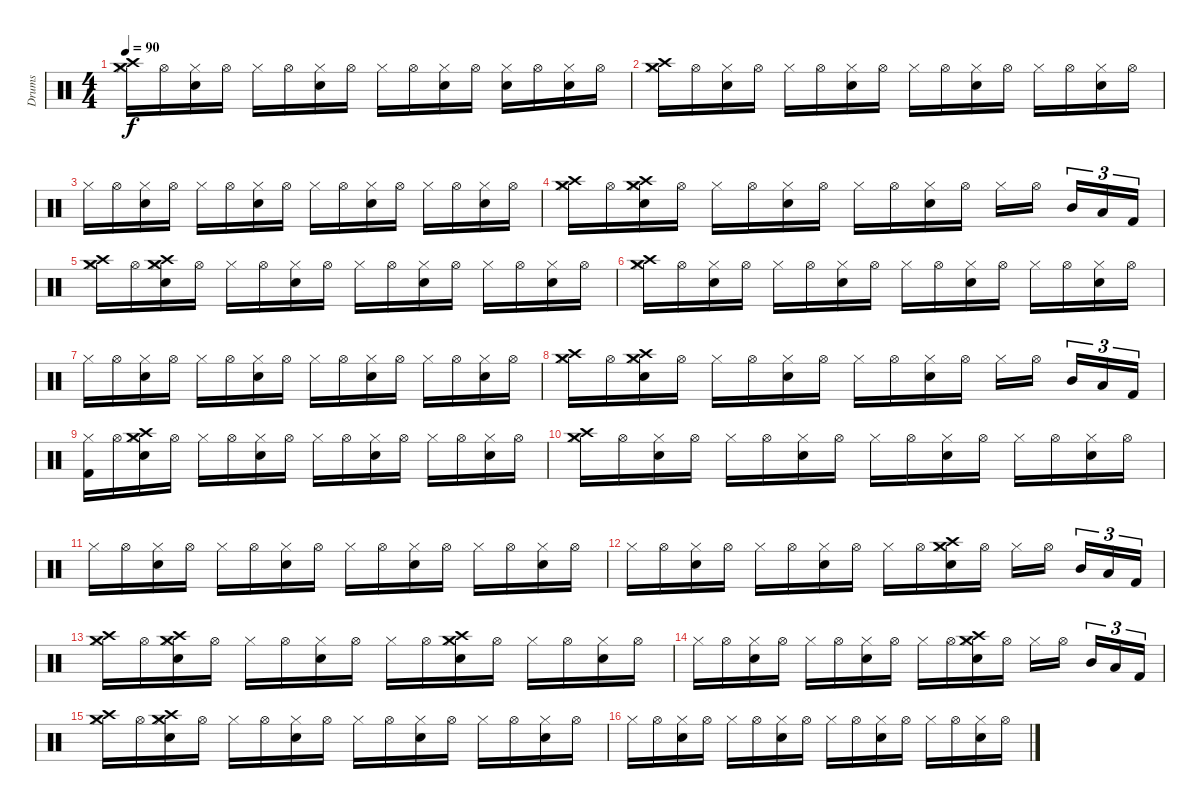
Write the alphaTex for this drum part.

\track ("Drums" "Drums") {instrument percussion}
\staff {score}
\articulation defaults
\ts (4 4)
\tempo 90
\clef neutral
\ks c
("Crash high (hit)" "Hi-Hat (closed)" "Crash medium (hit)").16{dy f} "Hi-Hat (open)".16 ("Snare (hit) 2" "Hi-Hat (closed)").16 "Hi-Hat (open)".16 "Hi-Hat (closed)".16 "Hi-Hat (open)".16 ("Snare (hit) 2" "Hi-Hat (closed)").16 "Hi-Hat (open)".16 "Hi-Hat (closed)".16 "Hi-Hat (open)".16 ("Snare (hit) 2" "Hi-Hat (closed)").16 "Hi-Hat (open)".16 ("Snare (hit) 2" "Hi-Hat (closed)").16 "Hi-Hat (open)".16 ("Snare (hit) 2" "Hi-Hat (closed)").16 "Hi-Hat (open)".16 |
("Crash high (hit)" "Hi-Hat (closed)" "Crash medium (hit)").16 "Hi-Hat (open)".16 ("Snare (hit) 2" "Hi-Hat (closed)").16 "Hi-Hat (open)".16 "Hi-Hat (closed)".16 "Hi-Hat (open)".16 ("Snare (hit) 2" "Hi-Hat (closed)").16 "Hi-Hat (open)".16 "Hi-Hat (closed)".16 "Hi-Hat (open)".16 ("Snare (hit) 2" "Hi-Hat (closed)").16 "Hi-Hat (open)".16 "Hi-Hat (closed)".16 "Hi-Hat (open)".16 ("Snare (hit) 2" "Hi-Hat (closed)").16 "Hi-Hat (open)".16 |
"Hi-Hat (closed)".16 "Hi-Hat (open)".16 ("Snare (hit) 2" "Hi-Hat (closed)").16 "Hi-Hat (open)".16 "Hi-Hat (closed)".16 "Hi-Hat (open)".16 ("Snare (hit) 2" "Hi-Hat (closed)").16 "Hi-Hat (open)".16 "Hi-Hat (closed)".16 "Hi-Hat (open)".16 ("Snare (hit) 2" "Hi-Hat (closed)").16 "Hi-Hat (open)".16 "Hi-Hat (closed)".16 "Hi-Hat (open)".16 ("Snare (hit) 2" "Hi-Hat (closed)").16 "Hi-Hat (open)".16 |
("Crash high (hit)" "Hi-Hat (closed)" "Crash medium (hit)").16 "Hi-Hat (open)".16 ("Snare (hit) 2" "Hi-Hat (closed)" "Crash high (hit)" "Crash medium (hit)").16 "Hi-Hat (open)".16 "Hi-Hat (closed)".16 "Hi-Hat (open)".16 ("Snare (hit) 2" "Hi-Hat (closed)").16 "Hi-Hat (open)".16 "Hi-Hat (closed)".16 "Hi-Hat (open)".16 ("Snare (hit) 2" "Hi-Hat (closed)").16 "Hi-Hat (open)".16 "Hi-Hat (closed)".16 "Hi-Hat (open)".16{beam splitsecondary} "Mid Tom (hit)".16{tu (3 2)} "Low Tom (hit)".16{tu (3 2)} "Kick (hit) 2".16{tu (3 2)} |
("Crash high (hit)" "Hi-Hat (closed)" "Crash medium (hit)").16 "Hi-Hat (open)".16 ("Snare (hit) 2" "Hi-Hat (closed)" "Crash high (hit)" "Crash medium (hit)").16 "Hi-Hat (open)".16 "Hi-Hat (closed)".16 "Hi-Hat (open)".16 ("Snare (hit) 2" "Hi-Hat (closed)").16 "Hi-Hat (open)".16 "Hi-Hat (closed)".16 "Hi-Hat (open)".16 ("Snare (hit) 2" "Hi-Hat (closed)").16 "Hi-Hat (open)".16 "Hi-Hat (closed)".16 "Hi-Hat (open)".16 ("Snare (hit) 2" "Hi-Hat (closed)").16 "Hi-Hat (open)".16 |
("Crash high (hit)" "Hi-Hat (closed)" "Crash medium (hit)").16 "Hi-Hat (open)".16 ("Snare (hit) 2" "Hi-Hat (closed)").16 "Hi-Hat (open)".16 "Hi-Hat (closed)".16 "Hi-Hat (open)".16 ("Snare (hit) 2" "Hi-Hat (closed)").16 "Hi-Hat (open)".16 "Hi-Hat (closed)".16 "Hi-Hat (open)".16 ("Snare (hit) 2" "Hi-Hat (closed)").16 "Hi-Hat (open)".16 "Hi-Hat (closed)".16 "Hi-Hat (open)".16 ("Snare (hit) 2" "Hi-Hat (closed)").16 "Hi-Hat (open)".16 |
"Hi-Hat (closed)".16 "Hi-Hat (open)".16 ("Snare (hit) 2" "Hi-Hat (closed)").16 "Hi-Hat (open)".16 "Hi-Hat (closed)".16 "Hi-Hat (open)".16 ("Snare (hit) 2" "Hi-Hat (closed)").16 "Hi-Hat (open)".16 "Hi-Hat (closed)".16 "Hi-Hat (open)".16 ("Snare (hit) 2" "Hi-Hat (closed)").16 "Hi-Hat (open)".16 "Hi-Hat (closed)".16 "Hi-Hat (open)".16 ("Snare (hit) 2" "Hi-Hat (closed)").16 "Hi-Hat (open)".16 |
("Crash high (hit)" "Hi-Hat (closed)" "Crash medium (hit)").16 "Hi-Hat (open)".16 ("Snare (hit) 2" "Hi-Hat (closed)" "Crash high (hit)" "Crash medium (hit)").16 "Hi-Hat (open)".16 "Hi-Hat (closed)".16 "Hi-Hat (open)".16 ("Snare (hit) 2" "Hi-Hat (closed)").16 "Hi-Hat (open)".16 "Hi-Hat (closed)".16 "Hi-Hat (open)".16 ("Snare (hit) 2" "Hi-Hat (closed)").16 "Hi-Hat (open)".16 "Hi-Hat (closed)".16 "Hi-Hat (open)".16{beam splitsecondary} "Mid Tom (hit)".16{tu (3 2)} "Low Tom (hit)".16{tu (3 2)} "Kick (hit) 2".16{tu (3 2)} |
("Hi-Hat (closed)" "Kick (hit) 2").16 "Hi-Hat (open)".16 ("Snare (hit) 2" "Hi-Hat (closed)" "Crash high (hit)" "Crash medium (hit)").16 "Hi-Hat (open)".16 "Hi-Hat (closed)".16 "Hi-Hat (open)".16 ("Snare (hit) 2" "Hi-Hat (closed)").16 "Hi-Hat (open)".16 "Hi-Hat (closed)".16 "Hi-Hat (open)".16 ("Snare (hit) 2" "Hi-Hat (closed)").16 "Hi-Hat (open)".16 "Hi-Hat (closed)".16 "Hi-Hat (open)".16 ("Snare (hit) 2" "Hi-Hat (closed)").16 "Hi-Hat (open)".16 |
("Crash high (hit)" "Hi-Hat (closed)" "Crash medium (hit)").16 "Hi-Hat (open)".16 ("Snare (hit) 2" "Hi-Hat (closed)").16 "Hi-Hat (open)".16 "Hi-Hat (closed)".16 "Hi-Hat (open)".16 ("Snare (hit) 2" "Hi-Hat (closed)").16 "Hi-Hat (open)".16 "Hi-Hat (closed)".16 "Hi-Hat (open)".16 ("Snare (hit) 2" "Hi-Hat (closed)").16 "Hi-Hat (open)".16 "Hi-Hat (closed)".16 "Hi-Hat (open)".16 ("Snare (hit) 2" "Hi-Hat (closed)").16 "Hi-Hat (open)".16 |
"Hi-Hat (closed)".16 "Hi-Hat (open)".16 ("Snare (hit) 2" "Hi-Hat (closed)").16 "Hi-Hat (open)".16 "Hi-Hat (closed)".16 "Hi-Hat (open)".16 ("Snare (hit) 2" "Hi-Hat (closed)").16 "Hi-Hat (open)".16 "Hi-Hat (closed)".16 "Hi-Hat (open)".16 ("Snare (hit) 2" "Hi-Hat (closed)").16 "Hi-Hat (open)".16 "Hi-Hat (closed)".16 "Hi-Hat (open)".16 ("Snare (hit) 2" "Hi-Hat (closed)").16 "Hi-Hat (open)".16 |
"Hi-Hat (closed)".16 "Hi-Hat (open)".16 ("Snare (hit) 2" "Hi-Hat (closed)").16 "Hi-Hat (open)".16 "Hi-Hat (closed)".16 "Hi-Hat (open)".16 ("Snare (hit) 2" "Hi-Hat (closed)").16 "Hi-Hat (open)".16 "Hi-Hat (closed)".16 "Hi-Hat (open)".16 ("Snare (hit) 2" "Hi-Hat (closed)" "Crash high (hit)" "Crash medium (hit)").16 "Hi-Hat (open)".16 "Hi-Hat (closed)".16 "Hi-Hat (open)".16{beam splitsecondary} "Mid Tom (hit)".16{tu (3 2)} "Low Tom (hit)".16{tu (3 2)} "Kick (hit) 2".16{tu (3 2)} |
("Crash high (hit)" "Hi-Hat (closed)" "Crash medium (hit)").16 "Hi-Hat (open)".16 ("Snare (hit) 2" "Hi-Hat (closed)" "Crash high (hit)" "Crash medium (hit)").16 "Hi-Hat (open)".16 "Hi-Hat (closed)".16 "Hi-Hat (open)".16 ("Snare (hit) 2" "Hi-Hat (closed)").16 "Hi-Hat (open)".16 "Hi-Hat (closed)".16 "Hi-Hat (open)".16 ("Snare (hit) 2" "Hi-Hat (closed)" "Crash high (hit)" "Crash medium (hit)").16 "Hi-Hat (open)".16 "Hi-Hat (closed)".16 "Hi-Hat (open)".16 ("Snare (hit) 2" "Hi-Hat (closed)").16 "Hi-Hat (open)".16 |
"Hi-Hat (closed)".16 "Hi-Hat (open)".16 ("Snare (hit) 2" "Hi-Hat (closed)").16 "Hi-Hat (open)".16 "Hi-Hat (closed)".16 "Hi-Hat (open)".16 ("Snare (hit) 2" "Hi-Hat (closed)").16 "Hi-Hat (open)".16 "Hi-Hat (closed)".16 "Hi-Hat (open)".16 ("Snare (hit) 2" "Hi-Hat (closed)" "Crash high (hit)" "Crash medium (hit)").16 "Hi-Hat (open)".16 "Hi-Hat (closed)".16 "Hi-Hat (open)".16{beam splitsecondary} "Mid Tom (hit)".16{tu (3 2)} "Low Tom (hit)".16{tu (3 2)} "Kick (hit) 2".16{tu (3 2)} |
("Crash high (hit)" "Hi-Hat (closed)" "Crash medium (hit)").16 "Hi-Hat (open)".16 ("Snare (hit) 2" "Hi-Hat (closed)" "Crash high (hit)" "Crash medium (hit)").16 "Hi-Hat (open)".16 "Hi-Hat (closed)".16 "Hi-Hat (open)".16 ("Snare (hit) 2" "Hi-Hat (closed)").16 "Hi-Hat (open)".16 "Hi-Hat (closed)".16 "Hi-Hat (open)".16 ("Snare (hit) 2" "Hi-Hat (closed)").16 "Hi-Hat (open)".16 "Hi-Hat (closed)".16 "Hi-Hat (open)".16 ("Snare (hit) 2" "Hi-Hat (closed)").16 "Hi-Hat (open)".16 |
"Hi-Hat (closed)".16 "Hi-Hat (open)".16 ("Snare (hit) 2" "Hi-Hat (closed)").16 "Hi-Hat (open)".16 "Hi-Hat (closed)".16 "Hi-Hat (open)".16 ("Snare (hit) 2" "Hi-Hat (closed)").16 "Hi-Hat (open)".16 "Hi-Hat (closed)".16 "Hi-Hat (open)".16 ("Snare (hit) 2" "Hi-Hat (closed)").16 "Hi-Hat (open)".16 "Hi-Hat (closed)".16 "Hi-Hat (open)".16 ("Snare (hit) 2" "Hi-Hat (closed)").16 "Hi-Hat (open)".16
